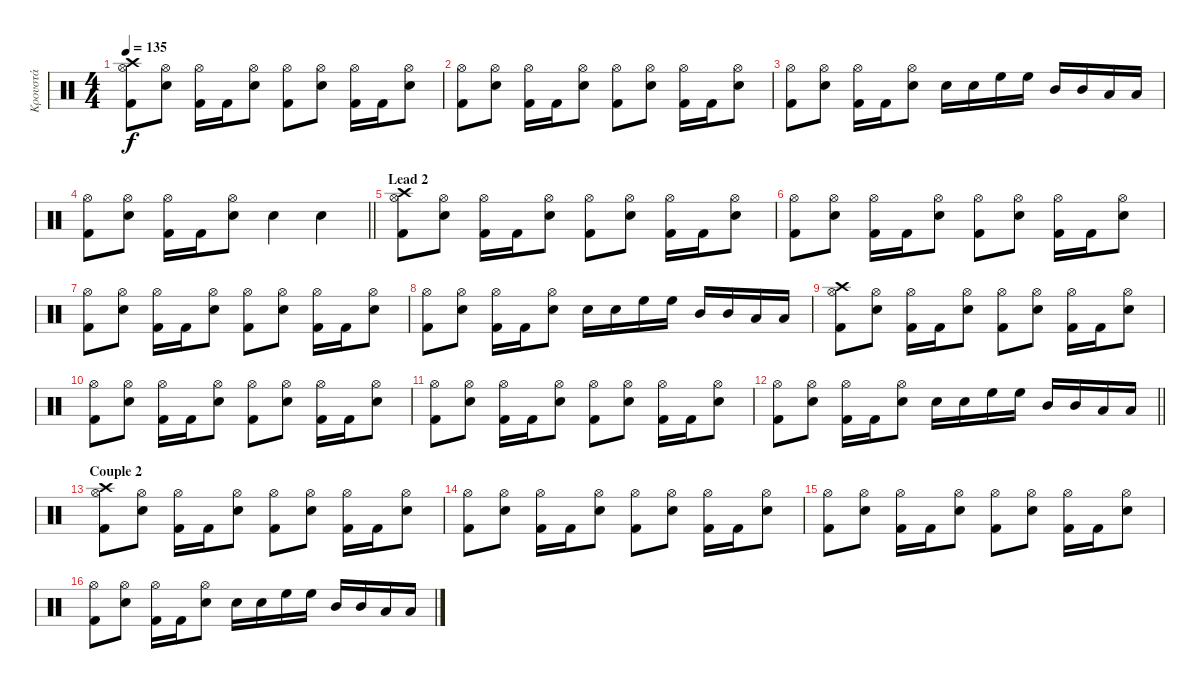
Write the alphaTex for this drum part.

\track ("Κρουστά" "Κρουστά") {instrument percussion}
\staff {score}
\articulation defaults
\ts (4 4)
\tempo 135
\clef neutral
\ks c
("Crash high (hit)" "Hi-Hat (open)" "Kick (hit) 2").8{dy f} ("Snare (hit) 2" "Hi-Hat (open)").8 ("Hi-Hat (open)" "Kick (hit) 2").16 "Kick (hit) 2".16 ("Snare (hit) 2" "Hi-Hat (open)").8 ("Hi-Hat (open)" "Kick (hit) 2").8 ("Snare (hit) 2" "Hi-Hat (open)").8 ("Hi-Hat (open)" "Kick (hit) 2").16 "Kick (hit) 2".16 ("Snare (hit) 2" "Hi-Hat (open)").8 |
("Hi-Hat (open)" "Kick (hit) 2").8 ("Snare (hit) 2" "Hi-Hat (open)").8 ("Hi-Hat (open)" "Kick (hit) 2").16 "Kick (hit) 2".16 ("Snare (hit) 2" "Hi-Hat (open)").8 ("Hi-Hat (open)" "Kick (hit) 2").8 ("Snare (hit) 2" "Hi-Hat (open)").8 ("Hi-Hat (open)" "Kick (hit) 2").16 "Kick (hit) 2".16 ("Snare (hit) 2" "Hi-Hat (open)").8 |
("Hi-Hat (open)" "Kick (hit) 2").8 ("Snare (hit) 2" "Hi-Hat (open)").8 ("Hi-Hat (open)" "Kick (hit) 2").16 "Kick (hit) 2".16 ("Snare (hit) 2" "Hi-Hat (open)").8 "Snare (hit) 2".16 "Snare (hit) 2".16 "High Floor Tom (hit)".16 "High Floor Tom (hit)".16 "Mid Tom (hit)".16 "Mid Tom (hit)".16 "Low Tom (hit)".16 "Low Tom (hit)".16 |
\barLineRight lightlight
("Hi-Hat (open)" "Kick (hit) 2").8 ("Snare (hit) 2" "Hi-Hat (open)").8 ("Hi-Hat (open)" "Kick (hit) 2").16 "Kick (hit) 2".16 ("Snare (hit) 2" "Hi-Hat (open)").8 "Snare (hit) 2".4 "Snare (hit) 2".4 |
\section ("" "Lead 2")
("Crash high (hit)" "Hi-Hat (open)" "Kick (hit) 2").8 ("Snare (hit) 2" "Hi-Hat (open)").8 ("Hi-Hat (open)" "Kick (hit) 2").16 "Kick (hit) 2".16 ("Snare (hit) 2" "Hi-Hat (open)").8 ("Hi-Hat (open)" "Kick (hit) 2").8 ("Snare (hit) 2" "Hi-Hat (open)").8 ("Hi-Hat (open)" "Kick (hit) 2").16 "Kick (hit) 2".16 ("Snare (hit) 2" "Hi-Hat (open)").8 |
("Hi-Hat (open)" "Kick (hit) 2").8 ("Snare (hit) 2" "Hi-Hat (open)").8 ("Hi-Hat (open)" "Kick (hit) 2").16 "Kick (hit) 2".16 ("Snare (hit) 2" "Hi-Hat (open)").8 ("Hi-Hat (open)" "Kick (hit) 2").8 ("Snare (hit) 2" "Hi-Hat (open)").8 ("Hi-Hat (open)" "Kick (hit) 2").16 "Kick (hit) 2".16 ("Snare (hit) 2" "Hi-Hat (open)").8 |
("Hi-Hat (open)" "Kick (hit) 2").8 ("Snare (hit) 2" "Hi-Hat (open)").8 ("Hi-Hat (open)" "Kick (hit) 2").16 "Kick (hit) 2".16 ("Snare (hit) 2" "Hi-Hat (open)").8 ("Hi-Hat (open)" "Kick (hit) 2").8 ("Snare (hit) 2" "Hi-Hat (open)").8 ("Hi-Hat (open)" "Kick (hit) 2").16 "Kick (hit) 2".16 ("Snare (hit) 2" "Hi-Hat (open)").8 |
("Hi-Hat (open)" "Kick (hit) 2").8 ("Snare (hit) 2" "Hi-Hat (open)").8 ("Hi-Hat (open)" "Kick (hit) 2").16 "Kick (hit) 2".16 ("Snare (hit) 2" "Hi-Hat (open)").8 "Snare (hit) 2".16 "Snare (hit) 2".16 "High Floor Tom (hit)".16 "High Floor Tom (hit)".16 "Mid Tom (hit)".16 "Mid Tom (hit)".16 "Low Tom (hit)".16 "Low Tom (hit)".16 |
("Crash high (hit)" "Hi-Hat (open)" "Kick (hit) 2").8 ("Snare (hit) 2" "Hi-Hat (open)").8 ("Hi-Hat (open)" "Kick (hit) 2").16 "Kick (hit) 2".16 ("Snare (hit) 2" "Hi-Hat (open)").8 ("Hi-Hat (open)" "Kick (hit) 2").8 ("Snare (hit) 2" "Hi-Hat (open)").8 ("Hi-Hat (open)" "Kick (hit) 2").16 "Kick (hit) 2".16 ("Snare (hit) 2" "Hi-Hat (open)").8 |
("Hi-Hat (open)" "Kick (hit) 2").8 ("Snare (hit) 2" "Hi-Hat (open)").8 ("Hi-Hat (open)" "Kick (hit) 2").16 "Kick (hit) 2".16 ("Snare (hit) 2" "Hi-Hat (open)").8 ("Hi-Hat (open)" "Kick (hit) 2").8 ("Snare (hit) 2" "Hi-Hat (open)").8 ("Hi-Hat (open)" "Kick (hit) 2").16 "Kick (hit) 2".16 ("Snare (hit) 2" "Hi-Hat (open)").8 |
("Hi-Hat (open)" "Kick (hit) 2").8 ("Snare (hit) 2" "Hi-Hat (open)").8 ("Hi-Hat (open)" "Kick (hit) 2").16 "Kick (hit) 2".16 ("Snare (hit) 2" "Hi-Hat (open)").8 ("Hi-Hat (open)" "Kick (hit) 2").8 ("Snare (hit) 2" "Hi-Hat (open)").8 ("Hi-Hat (open)" "Kick (hit) 2").16 "Kick (hit) 2".16 ("Snare (hit) 2" "Hi-Hat (open)").8 |
\barLineRight lightlight
("Hi-Hat (open)" "Kick (hit) 2").8 ("Snare (hit) 2" "Hi-Hat (open)").8 ("Hi-Hat (open)" "Kick (hit) 2").16 "Kick (hit) 2".16 ("Snare (hit) 2" "Hi-Hat (open)").8 "Snare (hit) 2".16 "Snare (hit) 2".16 "High Floor Tom (hit)".16 "High Floor Tom (hit)".16 "Mid Tom (hit)".16 "Mid Tom (hit)".16 "Low Tom (hit)".16 "Low Tom (hit)".16 |
\section ("" "Couple 2")
("Crash high (hit)" "Hi-Hat (open)" "Kick (hit) 2").8 ("Snare (hit) 2" "Hi-Hat (open)").8 ("Hi-Hat (open)" "Kick (hit) 2").16 "Kick (hit) 2".16 ("Snare (hit) 2" "Hi-Hat (open)").8 ("Hi-Hat (open)" "Kick (hit) 2").8 ("Snare (hit) 2" "Hi-Hat (open)").8 ("Hi-Hat (open)" "Kick (hit) 2").16 "Kick (hit) 2".16 ("Snare (hit) 2" "Hi-Hat (open)").8 |
("Hi-Hat (open)" "Kick (hit) 2").8 ("Snare (hit) 2" "Hi-Hat (open)").8 ("Hi-Hat (open)" "Kick (hit) 2").16 "Kick (hit) 2".16 ("Snare (hit) 2" "Hi-Hat (open)").8 ("Hi-Hat (open)" "Kick (hit) 2").8 ("Snare (hit) 2" "Hi-Hat (open)").8 ("Hi-Hat (open)" "Kick (hit) 2").16 "Kick (hit) 2".16 ("Snare (hit) 2" "Hi-Hat (open)").8 |
("Hi-Hat (open)" "Kick (hit) 2").8 ("Snare (hit) 2" "Hi-Hat (open)").8 ("Hi-Hat (open)" "Kick (hit) 2").16 "Kick (hit) 2".16 ("Snare (hit) 2" "Hi-Hat (open)").8 ("Hi-Hat (open)" "Kick (hit) 2").8 ("Snare (hit) 2" "Hi-Hat (open)").8 ("Hi-Hat (open)" "Kick (hit) 2").16 "Kick (hit) 2".16 ("Snare (hit) 2" "Hi-Hat (open)").8 |
("Hi-Hat (open)" "Kick (hit) 2").8 ("Snare (hit) 2" "Hi-Hat (open)").8 ("Hi-Hat (open)" "Kick (hit) 2").16 "Kick (hit) 2".16 ("Snare (hit) 2" "Hi-Hat (open)").8 "Snare (hit) 2".16 "Snare (hit) 2".16 "High Floor Tom (hit)".16 "High Floor Tom (hit)".16 "Mid Tom (hit)".16 "Mid Tom (hit)".16 "Low Tom (hit)".16 "Low Tom (hit)".16
